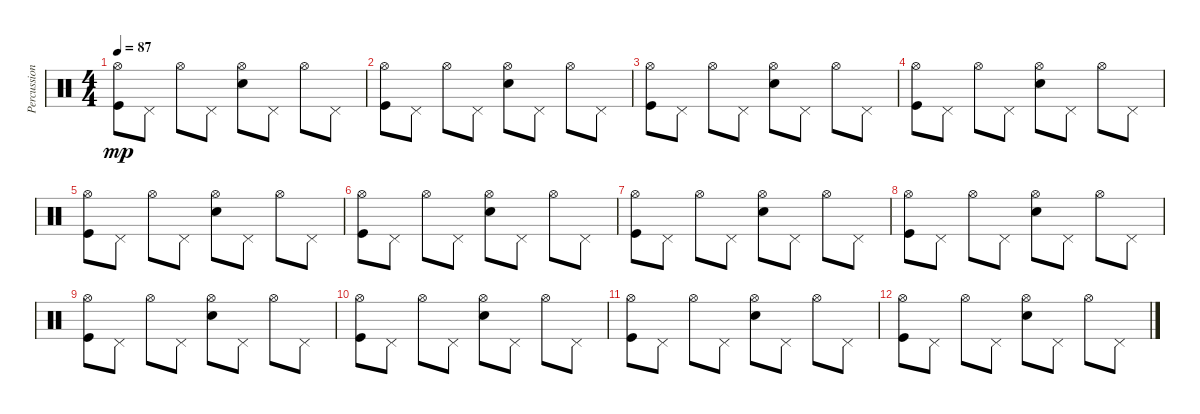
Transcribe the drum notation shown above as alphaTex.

\track ("Percussion" "Percussion") {instrument percussion}
\staff {score}
\articulation defaults
\ts (4 4)
\tempo 87
\clef neutral
\ks c
("Kick (hit)" "Hi-Hat (open)").8{dy mp} "Pedal Hi-Hat (hit)".8 "Hi-Hat (open)".8 "Pedal Hi-Hat (hit)".8 ("Snare (hit) 2" "Hi-Hat (open)").8 "Pedal Hi-Hat (hit)".8 "Hi-Hat (open)".8 "Pedal Hi-Hat (hit)".8 |
("Kick (hit)" "Hi-Hat (open)").8 "Pedal Hi-Hat (hit)".8 "Hi-Hat (open)".8 "Pedal Hi-Hat (hit)".8 ("Snare (hit) 2" "Hi-Hat (open)").8 "Pedal Hi-Hat (hit)".8 "Hi-Hat (open)".8 "Pedal Hi-Hat (hit)".8 |
("Kick (hit)" "Hi-Hat (open)").8 "Pedal Hi-Hat (hit)".8 "Hi-Hat (open)".8 "Pedal Hi-Hat (hit)".8 ("Snare (hit) 2" "Hi-Hat (open)").8 "Pedal Hi-Hat (hit)".8 "Hi-Hat (open)".8 "Pedal Hi-Hat (hit)".8 |
("Kick (hit)" "Hi-Hat (open)").8 "Pedal Hi-Hat (hit)".8 "Hi-Hat (open)".8 "Pedal Hi-Hat (hit)".8 ("Snare (hit) 2" "Hi-Hat (open)").8 "Pedal Hi-Hat (hit)".8 "Hi-Hat (open)".8 "Pedal Hi-Hat (hit)".8 |
("Kick (hit)" "Hi-Hat (open)").8 "Pedal Hi-Hat (hit)".8 "Hi-Hat (open)".8 "Pedal Hi-Hat (hit)".8 ("Snare (hit) 2" "Hi-Hat (open)").8 "Pedal Hi-Hat (hit)".8 "Hi-Hat (open)".8 "Pedal Hi-Hat (hit)".8 |
("Kick (hit)" "Hi-Hat (open)").8 "Pedal Hi-Hat (hit)".8 "Hi-Hat (open)".8 "Pedal Hi-Hat (hit)".8 ("Snare (hit) 2" "Hi-Hat (open)").8 "Pedal Hi-Hat (hit)".8 "Hi-Hat (open)".8 "Pedal Hi-Hat (hit)".8 |
("Kick (hit)" "Hi-Hat (open)").8 "Pedal Hi-Hat (hit)".8 "Hi-Hat (open)".8 "Pedal Hi-Hat (hit)".8 ("Snare (hit) 2" "Hi-Hat (open)").8 "Pedal Hi-Hat (hit)".8 "Hi-Hat (open)".8 "Pedal Hi-Hat (hit)".8 |
("Kick (hit)" "Hi-Hat (open)").8 "Pedal Hi-Hat (hit)".8 "Hi-Hat (open)".8 "Pedal Hi-Hat (hit)".8 ("Snare (hit) 2" "Hi-Hat (open)").8 "Pedal Hi-Hat (hit)".8 "Hi-Hat (open)".8 "Pedal Hi-Hat (hit)".8 |
("Kick (hit)" "Hi-Hat (open)").8 "Pedal Hi-Hat (hit)".8 "Hi-Hat (open)".8 "Pedal Hi-Hat (hit)".8 ("Snare (hit) 2" "Hi-Hat (open)").8 "Pedal Hi-Hat (hit)".8 "Hi-Hat (open)".8 "Pedal Hi-Hat (hit)".8 |
("Kick (hit)" "Hi-Hat (open)").8 "Pedal Hi-Hat (hit)".8 "Hi-Hat (open)".8 "Pedal Hi-Hat (hit)".8 ("Snare (hit) 2" "Hi-Hat (open)").8 "Pedal Hi-Hat (hit)".8 "Hi-Hat (open)".8 "Pedal Hi-Hat (hit)".8 |
("Kick (hit)" "Hi-Hat (open)").8 "Pedal Hi-Hat (hit)".8 "Hi-Hat (open)".8 "Pedal Hi-Hat (hit)".8 ("Snare (hit) 2" "Hi-Hat (open)").8 "Pedal Hi-Hat (hit)".8 "Hi-Hat (open)".8 "Pedal Hi-Hat (hit)".8 |
("Kick (hit)" "Hi-Hat (open)").8 "Pedal Hi-Hat (hit)".8 "Hi-Hat (open)".8 "Pedal Hi-Hat (hit)".8 ("Snare (hit) 2" "Hi-Hat (open)").8 "Pedal Hi-Hat (hit)".8 "Hi-Hat (open)".8 "Pedal Hi-Hat (hit)".8
